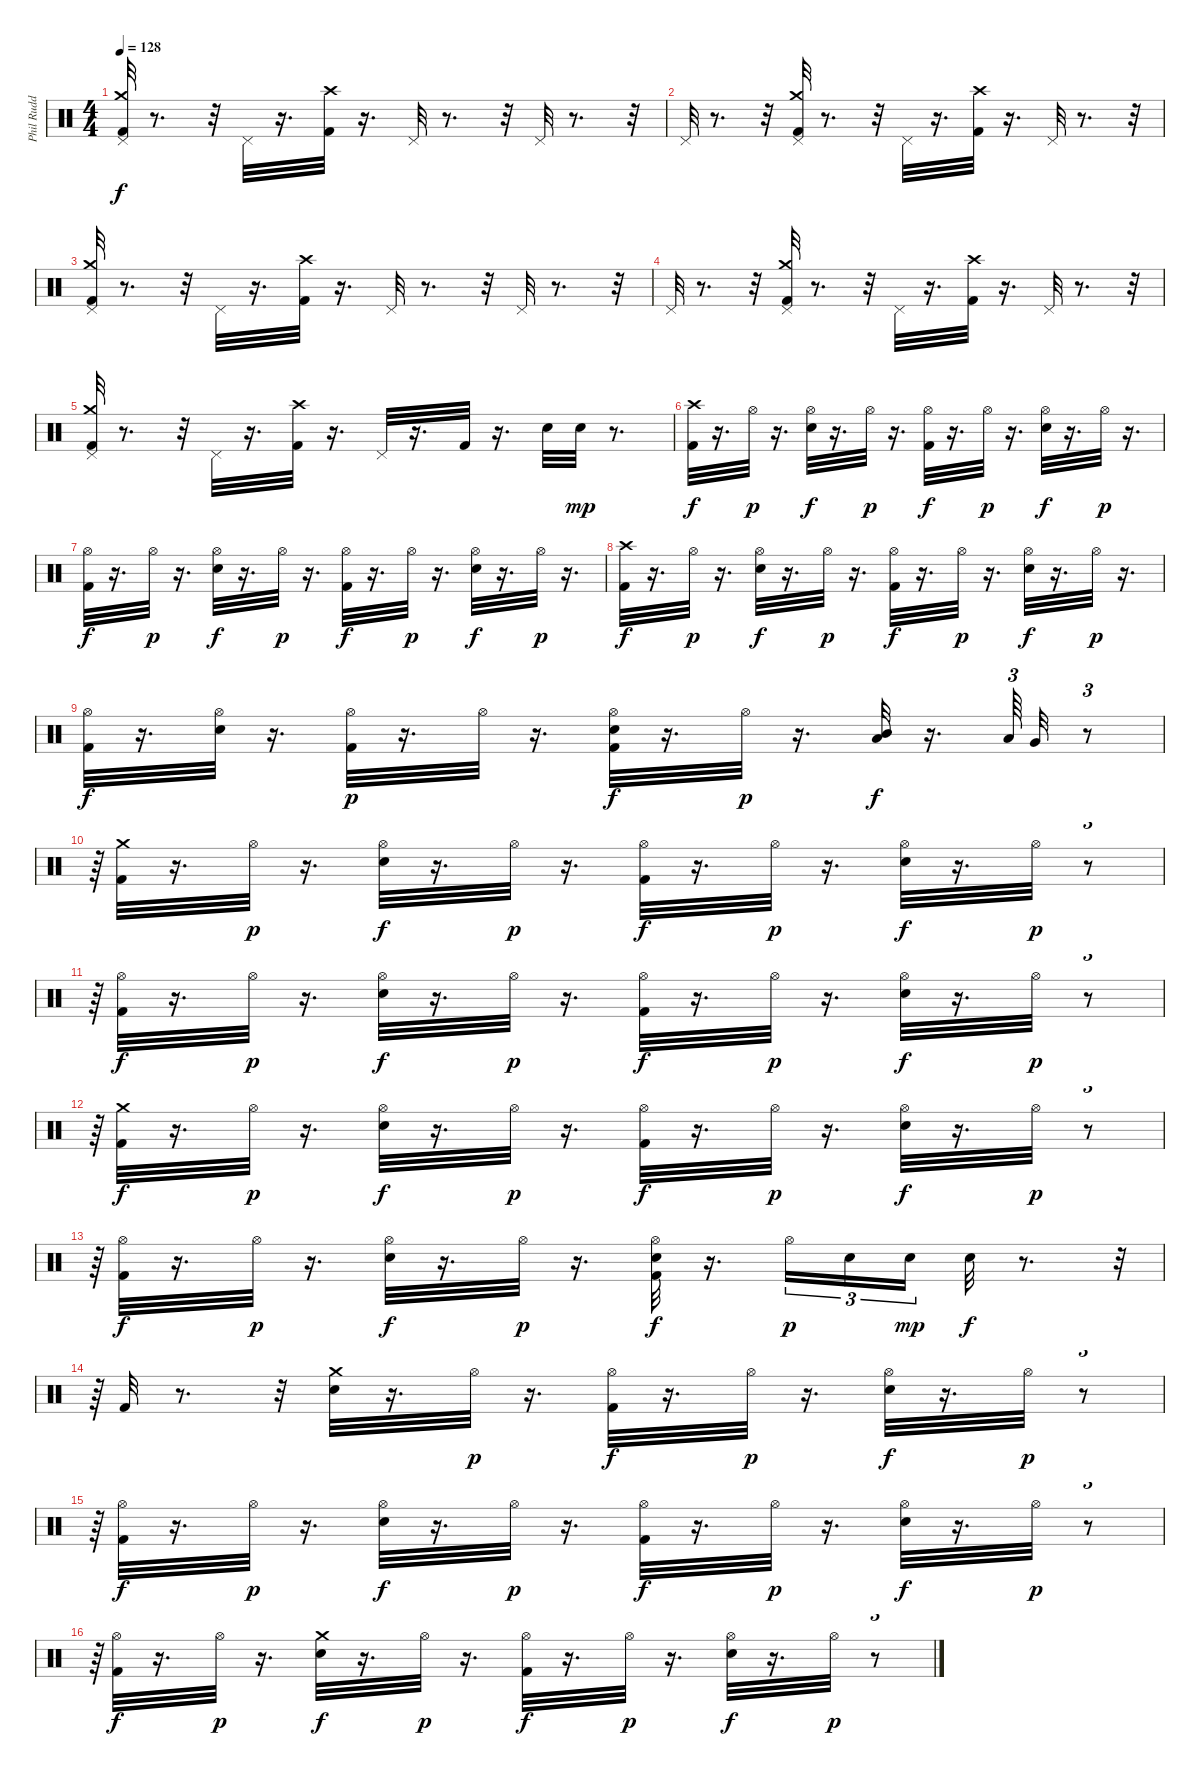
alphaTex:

\track ("Phil Rudd" "Phil Rudd") {instrument percussion}
\staff {score}
\articulation defaults
\ts (4 4)
\tempo 128
\clef neutral
\ks c
("Kick (hit) 2" "Crash medium (hit)" "Pedal Hi-Hat (hit)").32{dy f} r.8{d} r.32 "Pedal Hi-Hat (hit)".32 r.16{d} ("Kick (hit) 2" "Crash high (hit)").32 r.16{d} "Pedal Hi-Hat (hit)".32 r.8{d} r.32 "Pedal Hi-Hat (hit)".32 r.8{d} r.32 |
"Pedal Hi-Hat (hit)".32 r.8{d} r.32 ("Kick (hit) 2" "Crash medium (hit)" "Pedal Hi-Hat (hit)").32 r.8{d} r.32 "Pedal Hi-Hat (hit)".32 r.16{d} ("Kick (hit) 2" "Crash high (hit)").32 r.16{d} "Pedal Hi-Hat (hit)".32 r.8{d} r.32 |
("Kick (hit) 2" "Crash medium (hit)" "Pedal Hi-Hat (hit)").32 r.8{d} r.32 "Pedal Hi-Hat (hit)".32 r.16{d} ("Kick (hit) 2" "Crash high (hit)").32 r.16{d} "Pedal Hi-Hat (hit)".32 r.8{d} r.32 "Pedal Hi-Hat (hit)".32 r.8{d} r.32 |
"Pedal Hi-Hat (hit)".32 r.8{d} r.32 ("Kick (hit) 2" "Crash medium (hit)" "Pedal Hi-Hat (hit)").32 r.8{d} r.32 "Pedal Hi-Hat (hit)".32 r.16{d} ("Kick (hit) 2" "Crash high (hit)").32 r.16{d} "Pedal Hi-Hat (hit)".32 r.8{d} r.32 |
("Kick (hit) 2" "Crash medium (hit)" "Pedal Hi-Hat (hit)").32 r.8{d} r.32 "Pedal Hi-Hat (hit)".32 r.16{d} ("Crash high (hit)" "Kick (hit) 2").32 r.16{d} "Pedal Hi-Hat (hit)".32 r.16{d} "Kick (hit) 2".32 r.16{d} "Electric Snare (hit)".32 "Snare (hit) 2".32{dy mp} r.8{d} |
("Crash high (hit)" "Kick (hit) 2").32{dy f} r.16{d} "Hi-Hat (open)".32{dy p} r.16{d} ("Hi-Hat (open)" "Electric Snare (hit)").32{dy f} r.16{d} "Hi-Hat (open)".32{dy p} r.16{d} ("Hi-Hat (open)" "Kick (hit) 2").32{dy f} r.16{d} "Hi-Hat (open)".32{dy p} r.16{d} ("Hi-Hat (open)" "Electric Snare (hit)").32{dy f} r.16{d} "Hi-Hat (open)".32{dy p} r.16{d} |
("Hi-Hat (open)" "Kick (hit) 2").32{dy f} r.16{d} "Hi-Hat (open)".32{dy p} r.16{d} ("Hi-Hat (open)" "Electric Snare (hit)").32{dy f} r.16{d} "Hi-Hat (open)".32{dy p} r.16{d} ("Hi-Hat (open)" "Kick (hit) 2").32{dy f} r.16{d} "Hi-Hat (open)".32{dy p} r.16{d} ("Hi-Hat (open)" "Electric Snare (hit)").32{dy f} r.16{d} "Hi-Hat (open)".32{dy p} r.16{d} |
("Crash high (hit)" "Kick (hit) 2").32{dy f} r.16{d} "Hi-Hat (open)".32{dy p} r.16{d} ("Hi-Hat (open)" "Electric Snare (hit)").32{dy f} r.16{d} "Hi-Hat (open)".32{dy p} r.16{d} ("Hi-Hat (open)" "Kick (hit) 2").32{dy f} r.16{d} "Hi-Hat (open)".32{dy p} r.16{d} ("Hi-Hat (open)" "Electric Snare (hit)").32{dy f} r.16{d} "Hi-Hat (open)".32{dy p} r.16{d} |
("Hi-Hat (open)" "Kick (hit) 2").32{dy f} r.16{d} ("Electric Snare (hit)" "Hi-Hat (open)").32 r.16{d} ("Kick (hit) 2" "Hi-Hat (open)").32{dy p} r.16{d} "Hi-Hat (open)".32 r.16{d} ("Electric Snare (hit)" "Hi-Hat (open)" "Kick (hit) 2").32{dy f} r.16{d} "Hi-Hat (open)".32{dy p} r.16{d} ("Mid Tom (hit)" "Low Tom (hit)").32{dy f} r.16{d} "Low Tom (hit)".64{tu (3 2)} "Very Low Tom (hit)".32 r.8{tu (3 2)} |
r.64{tu (3 2)} ("Crash medium (hit)" "Kick (hit) 2").32 r.16{d} "Hi-Hat (open)".32{dy p} r.16{d} ("Hi-Hat (open)" "Electric Snare (hit)").32{dy f} r.16{d} "Hi-Hat (open)".32{dy p} r.16{d} ("Hi-Hat (open)" "Kick (hit) 2").32{dy f} r.16{d} "Hi-Hat (open)".32{dy p} r.16{d} ("Hi-Hat (open)" "Electric Snare (hit)").32{dy f} r.16{d} "Hi-Hat (open)".32{dy p} r.8{tu (3 2)} |
r.64{tu (3 2)} ("Hi-Hat (open)" "Kick (hit) 2").32{dy f} r.16{d} "Hi-Hat (open)".32{dy p} r.16{d} ("Hi-Hat (open)" "Electric Snare (hit)").32{dy f} r.16{d} "Hi-Hat (open)".32{dy p} r.16{d} ("Hi-Hat (open)" "Kick (hit) 2").32{dy f} r.16{d} "Hi-Hat (open)".32{dy p} r.16{d} ("Hi-Hat (open)" "Electric Snare (hit)").32{dy f} r.16{d} "Hi-Hat (open)".32{dy p} r.8{tu (3 2)} |
r.64{tu (3 2)} ("Crash medium (hit)" "Kick (hit) 2").32{dy f} r.16{d} "Hi-Hat (open)".32{dy p} r.16{d} ("Hi-Hat (open)" "Electric Snare (hit)").32{dy f} r.16{d} "Hi-Hat (open)".32{dy p} r.16{d} ("Hi-Hat (open)" "Kick (hit) 2").32{dy f} r.16{d} "Hi-Hat (open)".32{dy p} r.16{d} ("Hi-Hat (open)" "Electric Snare (hit)").32{dy f} r.16{d} "Hi-Hat (open)".32{dy p} r.8{tu (3 2)} |
r.64{tu (3 2)} ("Hi-Hat (open)" "Kick (hit) 2").32{dy f} r.16{d} "Hi-Hat (open)".32{dy p} r.16{d} ("Hi-Hat (open)" "Electric Snare (hit)").32{dy f} r.16{d} "Hi-Hat (open)".32{dy p} r.16{d} ("Electric Snare (hit)" "Hi-Hat (open)" "Kick (hit) 2").32{dy f} r.16{d} "Hi-Hat (open)".16{tu (3 2) dy p} "Electric Snare (hit)".16{tu (3 2)} "Electric Snare (hit)".16{tu (3 2) dy mp} "Electric Snare (hit)".32{dy f} r.8{d} r.32{tu (3 2)} |
r.64{tu (3 2)} "Kick (hit) 2".32 r.8{d} r.32 ("Crash medium (hit)" "Electric Snare (hit)").32 r.16{d} "Hi-Hat (open)".32{dy p} r.16{d} ("Hi-Hat (open)" "Kick (hit) 2").32{dy f} r.16{d} "Hi-Hat (open)".32{dy p} r.16{d} ("Hi-Hat (open)" "Electric Snare (hit)").32{dy f} r.16{d} "Hi-Hat (open)".32{dy p} r.8{tu (3 2)} |
r.64{tu (3 2)} ("Hi-Hat (open)" "Kick (hit) 2").32{dy f} r.16{d} "Hi-Hat (open)".32{dy p} r.16{d} ("Hi-Hat (open)" "Electric Snare (hit)").32{dy f} r.16{d} "Hi-Hat (open)".32{dy p} r.16{d} ("Hi-Hat (open)" "Kick (hit) 2").32{dy f} r.16{d} "Hi-Hat (open)".32{dy p} r.16{d} ("Hi-Hat (open)" "Electric Snare (hit)").32{dy f} r.16{d} "Hi-Hat (open)".32{dy p} r.8{tu (3 2)} |
r.64{tu (3 2)} ("Hi-Hat (open)" "Kick (hit) 2").32{dy f} r.16{d} "Hi-Hat (open)".32{dy p} r.16{d} ("Crash medium (hit)" "Electric Snare (hit)").32{dy f} r.16{d} "Hi-Hat (open)".32{dy p} r.16{d} ("Hi-Hat (open)" "Kick (hit) 2").32{dy f} r.16{d} "Hi-Hat (open)".32{dy p} r.16{d} ("Hi-Hat (open)" "Electric Snare (hit)").32{dy f} r.16{d} "Hi-Hat (open)".32{dy p} r.8{tu (3 2)}
